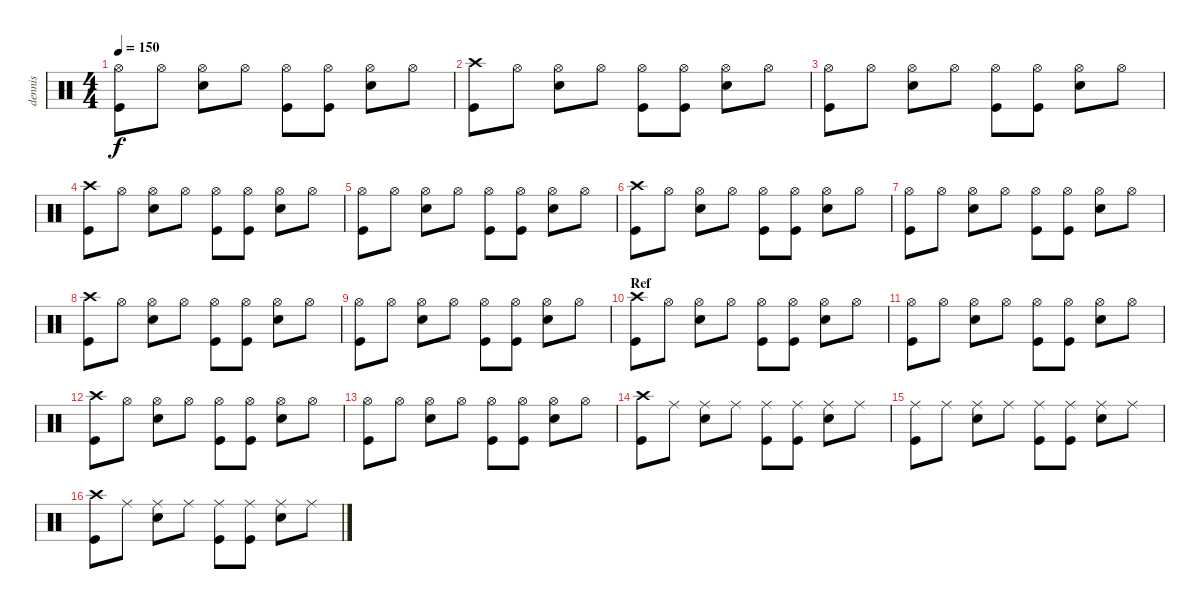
\track ("dennis" "dennis") {instrument percussion}
\staff {score}
\articulation defaults
\ts (4 4)
\tempo 150
\clef neutral
\ks c
("Hi-Hat (open)" "Kick (hit)").8{dy f} "Hi-Hat (open)".8 ("Hi-Hat (open)" "Electric Snare (hit)").8 "Hi-Hat (open)".8 ("Hi-Hat (open)" "Kick (hit)").8 ("Hi-Hat (open)" "Kick (hit)").8 ("Hi-Hat (open)" "Electric Snare (hit)").8 "Hi-Hat (open)".8 |
("Crash high (hit)" "Kick (hit)").8 "Hi-Hat (open)".8 ("Hi-Hat (open)" "Electric Snare (hit)").8 "Hi-Hat (open)".8 ("Hi-Hat (open)" "Kick (hit)").8 ("Hi-Hat (open)" "Kick (hit)").8 ("Hi-Hat (open)" "Electric Snare (hit)").8 "Hi-Hat (open)".8 |
("Hi-Hat (open)" "Kick (hit)").8 "Hi-Hat (open)".8 ("Hi-Hat (open)" "Electric Snare (hit)").8 "Hi-Hat (open)".8 ("Hi-Hat (open)" "Kick (hit)").8 ("Hi-Hat (open)" "Kick (hit)").8 ("Hi-Hat (open)" "Electric Snare (hit)").8 "Hi-Hat (open)".8 |
("Crash high (hit)" "Kick (hit)").8 "Hi-Hat (open)".8 ("Hi-Hat (open)" "Electric Snare (hit)").8 "Hi-Hat (open)".8 ("Hi-Hat (open)" "Kick (hit)").8 ("Hi-Hat (open)" "Kick (hit)").8 ("Hi-Hat (open)" "Electric Snare (hit)").8 "Hi-Hat (open)".8 |
("Hi-Hat (open)" "Kick (hit)").8 "Hi-Hat (open)".8 ("Hi-Hat (open)" "Electric Snare (hit)").8 "Hi-Hat (open)".8 ("Hi-Hat (open)" "Kick (hit)").8 ("Hi-Hat (open)" "Kick (hit)").8 ("Hi-Hat (open)" "Electric Snare (hit)").8 "Hi-Hat (open)".8 |
("Crash high (hit)" "Kick (hit)").8 "Hi-Hat (open)".8 ("Hi-Hat (open)" "Electric Snare (hit)").8 "Hi-Hat (open)".8 ("Hi-Hat (open)" "Kick (hit)").8 ("Hi-Hat (open)" "Kick (hit)").8 ("Hi-Hat (open)" "Electric Snare (hit)").8 "Hi-Hat (open)".8 |
("Hi-Hat (open)" "Kick (hit)").8 "Hi-Hat (open)".8 ("Hi-Hat (open)" "Electric Snare (hit)").8 "Hi-Hat (open)".8 ("Hi-Hat (open)" "Kick (hit)").8 ("Hi-Hat (open)" "Kick (hit)").8 ("Hi-Hat (open)" "Electric Snare (hit)").8 "Hi-Hat (open)".8 |
("Crash high (hit)" "Kick (hit)").8 "Hi-Hat (open)".8 ("Hi-Hat (open)" "Electric Snare (hit)").8 "Hi-Hat (open)".8 ("Hi-Hat (open)" "Kick (hit)").8 ("Hi-Hat (open)" "Kick (hit)").8 ("Hi-Hat (open)" "Electric Snare (hit)").8 "Hi-Hat (open)".8 |
("Hi-Hat (open)" "Kick (hit)").8 "Hi-Hat (open)".8 ("Hi-Hat (open)" "Electric Snare (hit)").8 "Hi-Hat (open)".8 ("Hi-Hat (open)" "Kick (hit)").8 ("Hi-Hat (open)" "Kick (hit)").8 ("Hi-Hat (open)" "Electric Snare (hit)").8 "Hi-Hat (open)".8 |
\section ("" "Ref")
("Crash high (hit)" "Kick (hit)").8 "Hi-Hat (open)".8 ("Hi-Hat (open)" "Electric Snare (hit)").8 "Hi-Hat (open)".8 ("Hi-Hat (open)" "Kick (hit)").8 ("Hi-Hat (open)" "Kick (hit)").8 ("Hi-Hat (open)" "Electric Snare (hit)").8 "Hi-Hat (open)".8 |
("Hi-Hat (open)" "Kick (hit)").8 "Hi-Hat (open)".8 ("Hi-Hat (open)" "Electric Snare (hit)").8 "Hi-Hat (open)".8 ("Hi-Hat (open)" "Kick (hit)").8 ("Hi-Hat (open)" "Kick (hit)").8 ("Hi-Hat (open)" "Electric Snare (hit)").8 "Hi-Hat (open)".8 |
("Crash high (hit)" "Kick (hit)").8 "Hi-Hat (open)".8 ("Hi-Hat (open)" "Electric Snare (hit)").8 "Hi-Hat (open)".8 ("Hi-Hat (open)" "Kick (hit)").8 ("Hi-Hat (open)" "Kick (hit)").8 ("Hi-Hat (open)" "Electric Snare (hit)").8 "Hi-Hat (open)".8 |
("Hi-Hat (open)" "Kick (hit)").8 "Hi-Hat (open)".8 ("Hi-Hat (open)" "Electric Snare (hit)").8 "Hi-Hat (open)".8 ("Hi-Hat (open)" "Kick (hit)").8 ("Hi-Hat (open)" "Kick (hit)").8 ("Hi-Hat (open)" "Electric Snare (hit)").8 "Hi-Hat (open)".8 |
("Crash high (hit)" "Kick (hit)").8 "Ride (middle)".8 ("Ride (middle)" "Electric Snare (hit)").8 "Ride (middle)".8 ("Ride (middle)" "Kick (hit)").8 ("Ride (middle)" "Kick (hit)").8 ("Ride (middle)" "Electric Snare (hit)").8 "Ride (middle)".8 |
("Ride (middle)" "Kick (hit)").8 "Ride (middle)".8 ("Ride (middle)" "Electric Snare (hit)").8 "Ride (middle)".8 ("Ride (middle)" "Kick (hit)").8 ("Ride (middle)" "Kick (hit)").8 ("Ride (middle)" "Electric Snare (hit)").8 "Ride (middle)".8 |
("Crash high (hit)" "Kick (hit)").8 "Ride (middle)".8 ("Ride (middle)" "Electric Snare (hit)").8 "Ride (middle)".8 ("Ride (middle)" "Kick (hit)").8 ("Ride (middle)" "Kick (hit)").8 ("Ride (middle)" "Electric Snare (hit)").8 "Ride (middle)".8
